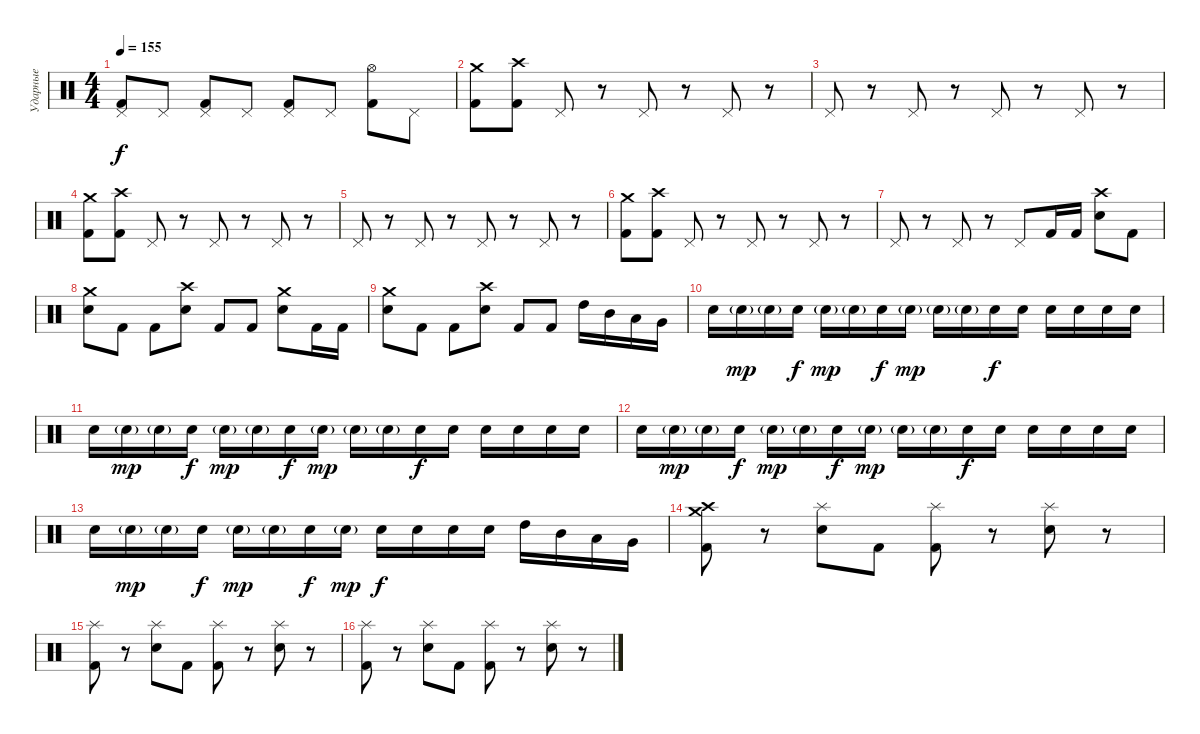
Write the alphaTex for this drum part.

\track ("Ударные" "Ударные") {instrument percussion}
\staff {score}
\articulation defaults
\ts (4 4)
\tempo 155
\clef neutral
\ks c
("Pedal Hi-Hat (hit)" "Kick (hit) 2").8{dy f} "Pedal Hi-Hat (hit)".8 ("Pedal Hi-Hat (hit)" "Kick (hit) 2").8 "Pedal Hi-Hat (hit)".8 ("Pedal Hi-Hat (hit)" "Kick (hit) 2").8 "Pedal Hi-Hat (hit)".8 ("Hi-Hat (open)" "Kick (hit) 2").8 "Pedal Hi-Hat (hit)".8 |
("Crash medium (hit)" "Kick (hit) 2").8 ("Crash high (hit)" "Kick (hit) 2").8 "Pedal Hi-Hat (hit)".8 r.8 "Pedal Hi-Hat (hit)".8 r.8 "Pedal Hi-Hat (hit)".8 r.8 |
"Pedal Hi-Hat (hit)".8 r.8 "Pedal Hi-Hat (hit)".8 r.8 "Pedal Hi-Hat (hit)".8 r.8 "Pedal Hi-Hat (hit)".8 r.8 |
("Crash medium (hit)" "Kick (hit) 2").8 ("Crash high (hit)" "Kick (hit) 2").8 "Pedal Hi-Hat (hit)".8 r.8 "Pedal Hi-Hat (hit)".8 r.8 "Pedal Hi-Hat (hit)".8 r.8 |
"Pedal Hi-Hat (hit)".8 r.8 "Pedal Hi-Hat (hit)".8 r.8 "Pedal Hi-Hat (hit)".8 r.8 "Pedal Hi-Hat (hit)".8 r.8 |
("Crash medium (hit)" "Kick (hit) 2").8 ("Crash high (hit)" "Kick (hit) 2").8 "Pedal Hi-Hat (hit)".8 r.8 "Pedal Hi-Hat (hit)".8 r.8 "Pedal Hi-Hat (hit)".8 r.8 |
"Pedal Hi-Hat (hit)".8 r.8 "Pedal Hi-Hat (hit)".8 r.8 "Pedal Hi-Hat (hit)".8 "Kick (hit) 2".16 "Kick (hit) 2".16 ("Crash high (hit)" "Electric Snare (hit)").8 "Kick (hit) 2".8 |
("Crash medium (hit)" "Electric Snare (hit)").8 "Kick (hit) 2".8 "Kick (hit) 2".8 ("Crash high (hit)" "Electric Snare (hit)").8 "Kick (hit) 2".8 "Kick (hit) 2".8 ("Crash medium (hit)" "Electric Snare (hit)").8 "Kick (hit) 2".16 "Kick (hit) 2".16 |
("Crash medium (hit)" "Electric Snare (hit)").8 "Kick (hit) 2".8 "Kick (hit) 2".8 ("Crash high (hit)" "Electric Snare (hit)").8 "Kick (hit) 2".8 "Kick (hit) 2".8 "High Tom (hit)".16 "Mid Tom (hit)".16 "Low Tom (hit)".16 "Very Low Tom (hit)".16 |
"Electric Snare (hit)".16 "Electric Snare (hit)"{g}.16{dy mp} "Electric Snare (hit)"{g}.16 "Electric Snare (hit)".16{dy f} "Electric Snare (hit)"{g}.16{dy mp} "Electric Snare (hit)"{g}.16 "Electric Snare (hit)".16{dy f} "Electric Snare (hit)"{g}.16{dy mp} "Electric Snare (hit)"{g}.16 "Electric Snare (hit)"{g}.16 "Electric Snare (hit)".16{dy f} "Electric Snare (hit)".16 "Electric Snare (hit)".16 "Electric Snare (hit)".16 "Electric Snare (hit)".16 "Electric Snare (hit)".16 |
"Electric Snare (hit)".16 "Electric Snare (hit)"{g}.16{dy mp} "Electric Snare (hit)"{g}.16 "Electric Snare (hit)".16{dy f} "Electric Snare (hit)"{g}.16{dy mp} "Electric Snare (hit)"{g}.16 "Electric Snare (hit)".16{dy f} "Electric Snare (hit)"{g}.16{dy mp} "Electric Snare (hit)"{g}.16 "Electric Snare (hit)"{g}.16 "Electric Snare (hit)".16{dy f} "Electric Snare (hit)".16 "Electric Snare (hit)".16 "Electric Snare (hit)".16 "Electric Snare (hit)".16 "Electric Snare (hit)".16 |
"Electric Snare (hit)".16 "Electric Snare (hit)"{g}.16{dy mp} "Electric Snare (hit)"{g}.16 "Electric Snare (hit)".16{dy f} "Electric Snare (hit)"{g}.16{dy mp} "Electric Snare (hit)"{g}.16 "Electric Snare (hit)".16{dy f} "Electric Snare (hit)"{g}.16{dy mp} "Electric Snare (hit)"{g}.16 "Electric Snare (hit)"{g}.16 "Electric Snare (hit)".16{dy f} "Electric Snare (hit)".16 "Electric Snare (hit)".16 "Electric Snare (hit)".16 "Electric Snare (hit)".16 "Electric Snare (hit)".16 |
"Electric Snare (hit)".16 "Electric Snare (hit)"{g}.16{dy mp} "Electric Snare (hit)"{g}.16 "Electric Snare (hit)".16{dy f} "Electric Snare (hit)"{g}.16{dy mp} "Electric Snare (hit)"{g}.16 "Electric Snare (hit)".16{dy f} "Electric Snare (hit)"{g}.16{dy mp} "Electric Snare (hit)".16{dy f} "Electric Snare (hit)".16 "Electric Snare (hit)".16 "Electric Snare (hit)".16 "High Tom (hit)".16 "Mid Tom (hit)".16 "Low Tom (hit)".16 "Very Low Tom (hit)".16 |
("Crash medium (hit)" "Crash high (hit)" "Kick (hit) 2").8 r.8 ("Splash (hit)" "Electric Snare (hit)").8 "Kick (hit) 2".8 ("Splash (hit)" "Kick (hit) 2").8 r.8 ("Splash (hit)" "Electric Snare (hit)").8 r.8 |
("Splash (hit)" "Kick (hit) 2").8 r.8 ("Splash (hit)" "Electric Snare (hit)").8 "Kick (hit) 2".8 ("Splash (hit)" "Kick (hit) 2").8 r.8 ("Splash (hit)" "Electric Snare (hit)").8 r.8 |
("Splash (hit)" "Kick (hit) 2").8 r.8 ("Splash (hit)" "Electric Snare (hit)").8 "Kick (hit) 2".8 ("Splash (hit)" "Kick (hit) 2").8 r.8 ("Splash (hit)" "Electric Snare (hit)").8 r.8
